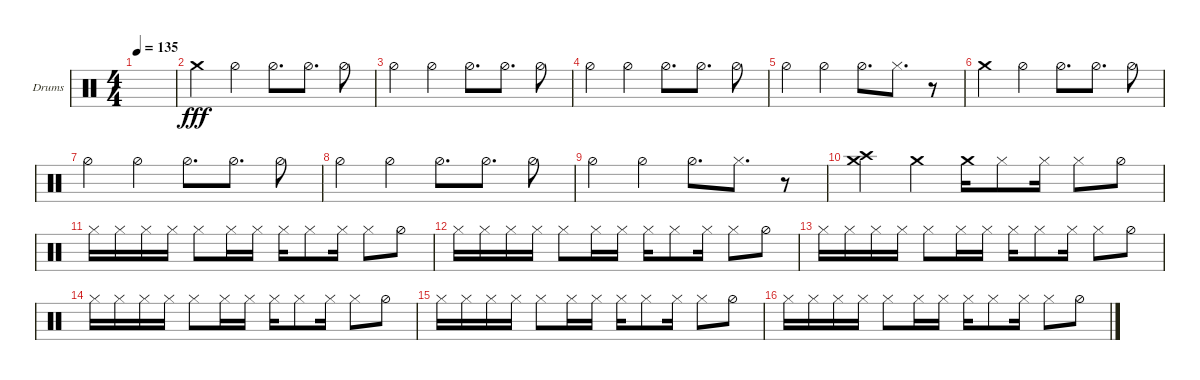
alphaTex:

\defaultSystemsLayout 4
\bracketExtendMode groupsimilarinstruments
\firstSystemTrackNameOrientation horizontal
\otherSystemsTrackNameOrientation horizontal
\track ("Helders" "Drums") {instrument percussion}
\staff {score}
\articulation defaults
\ts (4 4)
\tempo 135
\clef neutral
\ks c
|
"Crash medium (hit)".4{dy fff} "Hi-Hat (half)".4 "Hi-Hat (half)".8{d} "Hi-Hat (half)".8{d} "Hi-Hat (half)".8 |
"Hi-Hat (half)".4 "Hi-Hat (half)".4 "Hi-Hat (half)".8{d} "Hi-Hat (half)".8{d} "Hi-Hat (half)".8 |
"Hi-Hat (half)".4 "Hi-Hat (half)".4 "Hi-Hat (half)".8{d} "Hi-Hat (half)".8{d} "Hi-Hat (half)".8 |
"Hi-Hat (half)".4 "Hi-Hat (half)".4 "Hi-Hat (half)".8{d} "Hi-Hat (closed)".8{d} r.8 |
"Crash medium (hit)".4 "Hi-Hat (half)".4 "Hi-Hat (half)".8{d} "Hi-Hat (half)".8{d} "Hi-Hat (half)".8 |
"Hi-Hat (half)".4 "Hi-Hat (half)".4 "Hi-Hat (half)".8{d} "Hi-Hat (half)".8{d} "Hi-Hat (half)".8 |
"Hi-Hat (half)".4 "Hi-Hat (half)".4 "Hi-Hat (half)".8{d} "Hi-Hat (half)".8{d} "Hi-Hat (half)".8 |
"Hi-Hat (half)".4 "Hi-Hat (half)".4 "Hi-Hat (half)".8{d} "Hi-Hat (closed)".8{d} r.8 |
("Crash high (hit)" "Crash medium (hit)").4 "Crash medium (hit)".4 "Crash medium (hit)".16 "Hi-Hat (closed)".8 "Hi-Hat (closed)".16 "Hi-Hat (closed)".8 "Hi-Hat (half)".8 |
"Hi-Hat (closed)".16 "Hi-Hat (closed)".16 "Hi-Hat (closed)".16 "Hi-Hat (closed)".16 "Hi-Hat (closed)".8 "Hi-Hat (closed)".16 "Hi-Hat (closed)".16 "Hi-Hat (closed)".16 "Hi-Hat (closed)".8 "Hi-Hat (closed)".16 "Hi-Hat (closed)".8 "Hi-Hat (half)".8 |
"Hi-Hat (closed)".16 "Hi-Hat (closed)".16 "Hi-Hat (closed)".16 "Hi-Hat (closed)".16 "Hi-Hat (closed)".8 "Hi-Hat (closed)".16 "Hi-Hat (closed)".16 "Hi-Hat (closed)".16 "Hi-Hat (closed)".8 "Hi-Hat (closed)".16 "Hi-Hat (closed)".8 "Hi-Hat (half)".8 |
"Hi-Hat (closed)".16 "Hi-Hat (closed)".16 "Hi-Hat (closed)".16 "Hi-Hat (closed)".16 "Hi-Hat (closed)".8 "Hi-Hat (closed)".16 "Hi-Hat (closed)".16 "Hi-Hat (closed)".16 "Hi-Hat (closed)".8 "Hi-Hat (closed)".16 "Hi-Hat (closed)".8 "Hi-Hat (half)".8 |
"Hi-Hat (closed)".16 "Hi-Hat (closed)".16 "Hi-Hat (closed)".16 "Hi-Hat (closed)".16 "Hi-Hat (closed)".8 "Hi-Hat (closed)".16 "Hi-Hat (closed)".16 "Hi-Hat (closed)".16 "Hi-Hat (closed)".8 "Hi-Hat (closed)".16 "Hi-Hat (closed)".8 "Hi-Hat (half)".8 |
"Hi-Hat (closed)".16 "Hi-Hat (closed)".16 "Hi-Hat (closed)".16 "Hi-Hat (closed)".16 "Hi-Hat (closed)".8 "Hi-Hat (closed)".16 "Hi-Hat (closed)".16 "Hi-Hat (closed)".16 "Hi-Hat (closed)".8 "Hi-Hat (closed)".16 "Hi-Hat (closed)".8 "Hi-Hat (half)".8 |
"Hi-Hat (closed)".16 "Hi-Hat (closed)".16 "Hi-Hat (closed)".16 "Hi-Hat (closed)".16 "Hi-Hat (closed)".8 "Hi-Hat (closed)".16 "Hi-Hat (closed)".16 "Hi-Hat (closed)".16 "Hi-Hat (closed)".8 "Hi-Hat (closed)".16 "Hi-Hat (closed)".8 "Hi-Hat (half)".8
